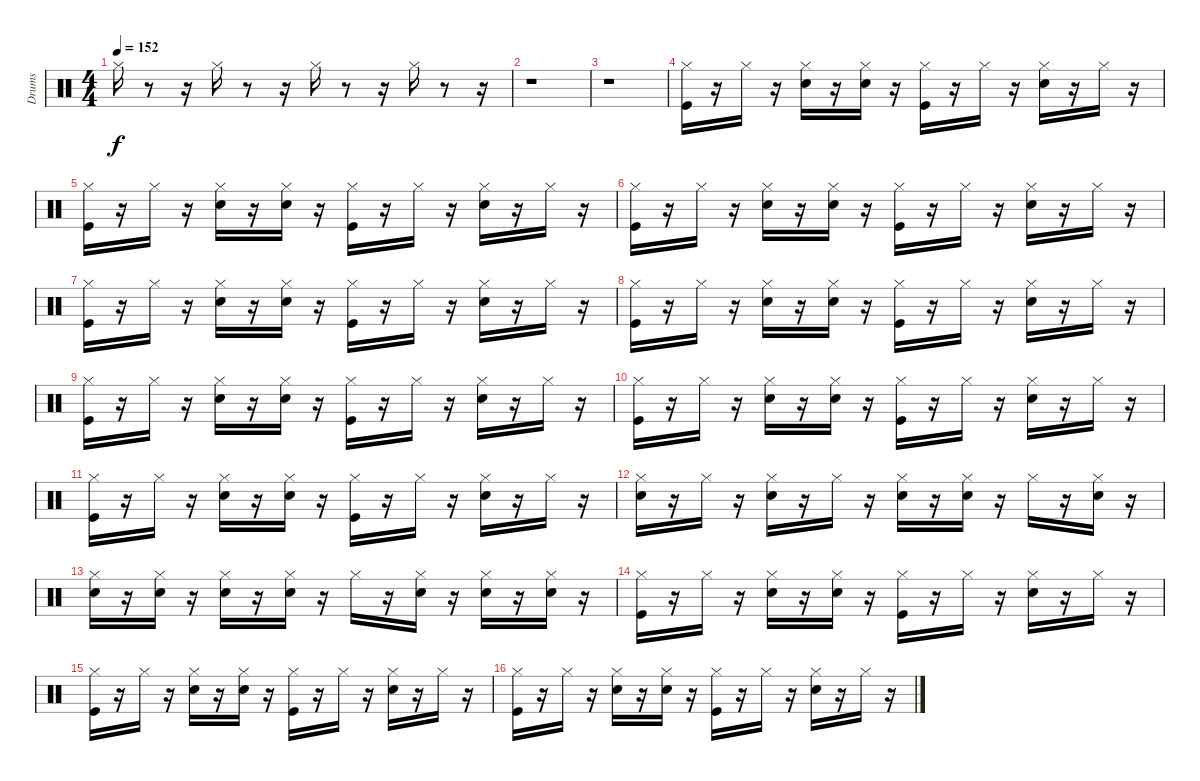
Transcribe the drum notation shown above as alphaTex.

\track ("Drums               " "Drums     ") {instrument percussion}
\staff {score}
\articulation defaults
\ts (4 4)
\tempo 152
\clef neutral
\ks c "Hi-Hat (closed)".16{dy f}
r.8 r.16 "Hi-Hat (closed)".16 r.8 r.16 "Hi-Hat (closed)".16 r.8 r.16 "Hi-Hat (closed)".16 r.8 r.16 |
r.1 |
r.1 |
("Kick (hit)" "Hi-Hat (closed)").16 r.16 "Hi-Hat (closed)".16 r.16 ("Electric Snare (hit)" "Hi-Hat (closed)").16 r.16 ("Electric Snare (hit)" "Hi-Hat (closed)").16 r.16 ("Kick (hit)" "Hi-Hat (closed)").16 r.16 "Hi-Hat (closed)".16 r.16 ("Hi-Hat (closed)" "Electric Snare (hit)").16 r.16 "Hi-Hat (closed)".16 r.16 |
("Kick (hit)" "Hi-Hat (closed)").16 r.16 "Hi-Hat (closed)".16 r.16 ("Electric Snare (hit)" "Hi-Hat (closed)").16 r.16 ("Electric Snare (hit)" "Hi-Hat (closed)").16 r.16 ("Kick (hit)" "Hi-Hat (closed)").16 r.16 "Hi-Hat (closed)".16 r.16 ("Electric Snare (hit)" "Hi-Hat (closed)").16 r.16 "Hi-Hat (closed)".16 r.16 |
("Kick (hit)" "Hi-Hat (closed)").16 r.16 "Hi-Hat (closed)".16 r.16 ("Electric Snare (hit)" "Hi-Hat (closed)").16 r.16 ("Electric Snare (hit)" "Hi-Hat (closed)").16 r.16 ("Kick (hit)" "Hi-Hat (closed)").16 r.16 "Hi-Hat (closed)".16 r.16 ("Electric Snare (hit)" "Hi-Hat (closed)").16 r.16 "Hi-Hat (closed)".16 r.16 |
("Kick (hit)" "Hi-Hat (closed)").16 r.16 "Hi-Hat (closed)".16 r.16 ("Electric Snare (hit)" "Hi-Hat (closed)").16 r.16 ("Electric Snare (hit)" "Hi-Hat (closed)").16 r.16 ("Hi-Hat (closed)" "Kick (hit)").16 r.16 "Hi-Hat (closed)".16 r.16 ("Electric Snare (hit)" "Hi-Hat (closed)").16 r.16 "Hi-Hat (closed)".16 r.16 |
("Kick (hit)" "Hi-Hat (closed)").16 r.16 "Hi-Hat (closed)".16 r.16 ("Electric Snare (hit)" "Hi-Hat (closed)").16 r.16 ("Electric Snare (hit)" "Hi-Hat (closed)").16 r.16 ("Kick (hit)" "Hi-Hat (closed)").16 r.16 "Hi-Hat (closed)".16 r.16 ("Electric Snare (hit)" "Hi-Hat (closed)").16 r.16 "Hi-Hat (closed)".16 r.16 |
("Kick (hit)" "Hi-Hat (closed)").16 r.16 "Hi-Hat (closed)".16 r.16 ("Electric Snare (hit)" "Hi-Hat (closed)").16 r.16 ("Electric Snare (hit)" "Hi-Hat (closed)").16 r.16 ("Kick (hit)" "Hi-Hat (closed)").16 r.16 "Hi-Hat (closed)".16 r.16 ("Electric Snare (hit)" "Hi-Hat (closed)").16 r.16 "Hi-Hat (closed)".16 r.16 |
("Kick (hit)" "Hi-Hat (closed)").16 r.16 "Hi-Hat (closed)".16 r.16 ("Hi-Hat (closed)" "Electric Snare (hit)").16 r.16 ("Electric Snare (hit)" "Hi-Hat (closed)").16 r.16 ("Kick (hit)" "Hi-Hat (closed)").16 r.16 "Hi-Hat (closed)".16 r.16 ("Electric Snare (hit)" "Hi-Hat (closed)").16 r.16 "Hi-Hat (closed)".16 r.16 |
("Kick (hit)" "Hi-Hat (closed)").16 r.16 "Hi-Hat (closed)".16 r.16 ("Electric Snare (hit)" "Hi-Hat (closed)").16 r.16 ("Electric Snare (hit)" "Hi-Hat (closed)").16 r.16 ("Kick (hit)" "Hi-Hat (closed)").16 r.16 "Hi-Hat (closed)".16 r.16 ("Electric Snare (hit)" "Hi-Hat (closed)").16 r.16 "Hi-Hat (closed)".16 r.16 |
("Electric Snare (hit)" "Hi-Hat (closed)").16 r.16 "Hi-Hat (closed)".16 r.16 ("Electric Snare (hit)" "Hi-Hat (closed)").16 r.16 "Hi-Hat (closed)".16 r.16 ("Electric Snare (hit)" "Hi-Hat (closed)").16 r.16 ("Electric Snare (hit)" "Hi-Hat (closed)").16 r.16 "Hi-Hat (closed)".16 r.16 ("Electric Snare (hit)" "Hi-Hat (closed)").16 r.16 |
("Hi-Hat (closed)" "Electric Snare (hit)").16 r.16 ("Electric Snare (hit)" "Hi-Hat (closed)").16 r.16 ("Electric Snare (hit)" "Hi-Hat (closed)").16 r.16 ("Electric Snare (hit)" "Hi-Hat (closed)").16 r.16 "Hi-Hat (closed)".16 r.16 ("Electric Snare (hit)" "Hi-Hat (closed)").16 r.16 ("Electric Snare (hit)" "Hi-Hat (closed)").16 r.16 ("Electric Snare (hit)" "Hi-Hat (closed)").16 r.16 |
("Kick (hit)" "Hi-Hat (closed)").16 r.16 "Hi-Hat (closed)".16 r.16 ("Electric Snare (hit)" "Hi-Hat (closed)").16 r.16 ("Hi-Hat (closed)" "Electric Snare (hit)").16 r.16 ("Kick (hit)" "Hi-Hat (closed)").16 r.16 "Hi-Hat (closed)".16 r.16 ("Electric Snare (hit)" "Hi-Hat (closed)").16 r.16 "Hi-Hat (closed)".16 r.16 |
("Kick (hit)" "Hi-Hat (closed)").16 r.16 "Hi-Hat (closed)".16 r.16 ("Electric Snare (hit)" "Hi-Hat (closed)").16 r.16 ("Electric Snare (hit)" "Hi-Hat (closed)").16 r.16 ("Kick (hit)" "Hi-Hat (closed)").16 r.16 "Hi-Hat (closed)".16 r.16 ("Hi-Hat (closed)" "Electric Snare (hit)").16 r.16 "Hi-Hat (closed)".16 r.16 |
("Kick (hit)" "Hi-Hat (closed)").16 r.16 "Hi-Hat (closed)".16 r.16 ("Electric Snare (hit)" "Hi-Hat (closed)").16 r.16 ("Electric Snare (hit)" "Hi-Hat (closed)").16 r.16 ("Kick (hit)" "Hi-Hat (closed)").16 r.16 "Hi-Hat (closed)".16 r.16 ("Electric Snare (hit)" "Hi-Hat (closed)").16 r.16 "Hi-Hat (closed)".16 r.16
